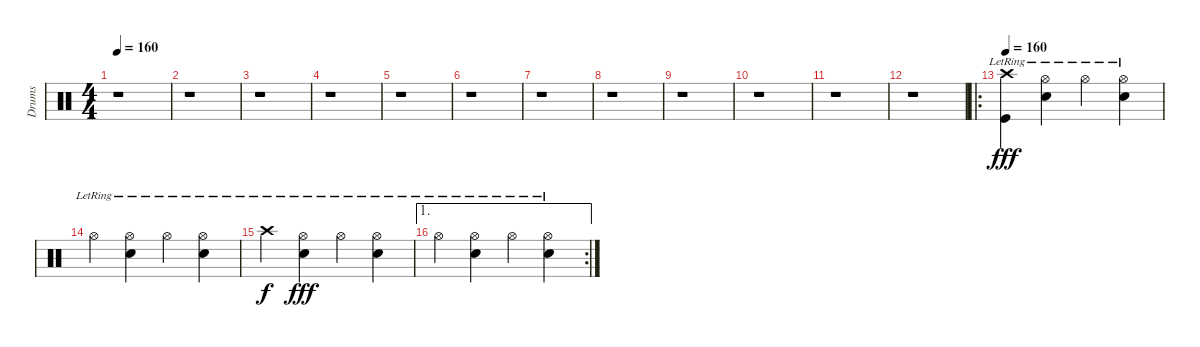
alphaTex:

\track ("Drums" "Drums") {instrument percussion}
\staff {score}
\articulation defaults
\ts (4 4)
\tempo 160
\clef neutral
\ks c
r.1{dy fff} |
r.1 |
r.1 |
r.1 |
r.1 |
r.1 |
r.1 |
r.1 |
r.1 |
r.1 |
r.1 |
r.1 |
\ro
\tempo 160
("Crash high (hit)"{lr} "Kick (hit)"{lr}).4 ("Hi-Hat (open)"{lr} "Snare (hit) 2"{lr}).4 "Hi-Hat (open)"{lr}.4 ("Hi-Hat (open)"{lr} "Snare (hit) 2"{lr}).4 |
"Hi-Hat (open)"{lr}.4 ("Hi-Hat (open)"{lr} "Snare (hit) 2"{lr}).4 "Hi-Hat (open)"{lr}.4 ("Hi-Hat (open)"{lr} "Snare (hit) 2"{lr}).4 |
"Crash high (hit)"{lr}.4{dy f} ("Hi-Hat (open)"{lr} "Snare (hit) 2"{lr}).4{dy fff} "Hi-Hat (open)"{lr}.4 ("Hi-Hat (open)"{lr} "Snare (hit) 2"{lr}).4 |
\ae 1
\rc 2 "Hi-Hat (open)"{lr}.4
("Hi-Hat (open)"{lr} "Snare (hit) 2"{lr}).4 "Hi-Hat (open)"{lr}.4 ("Hi-Hat (open)"{lr} "Snare (hit) 2"{lr}).4
